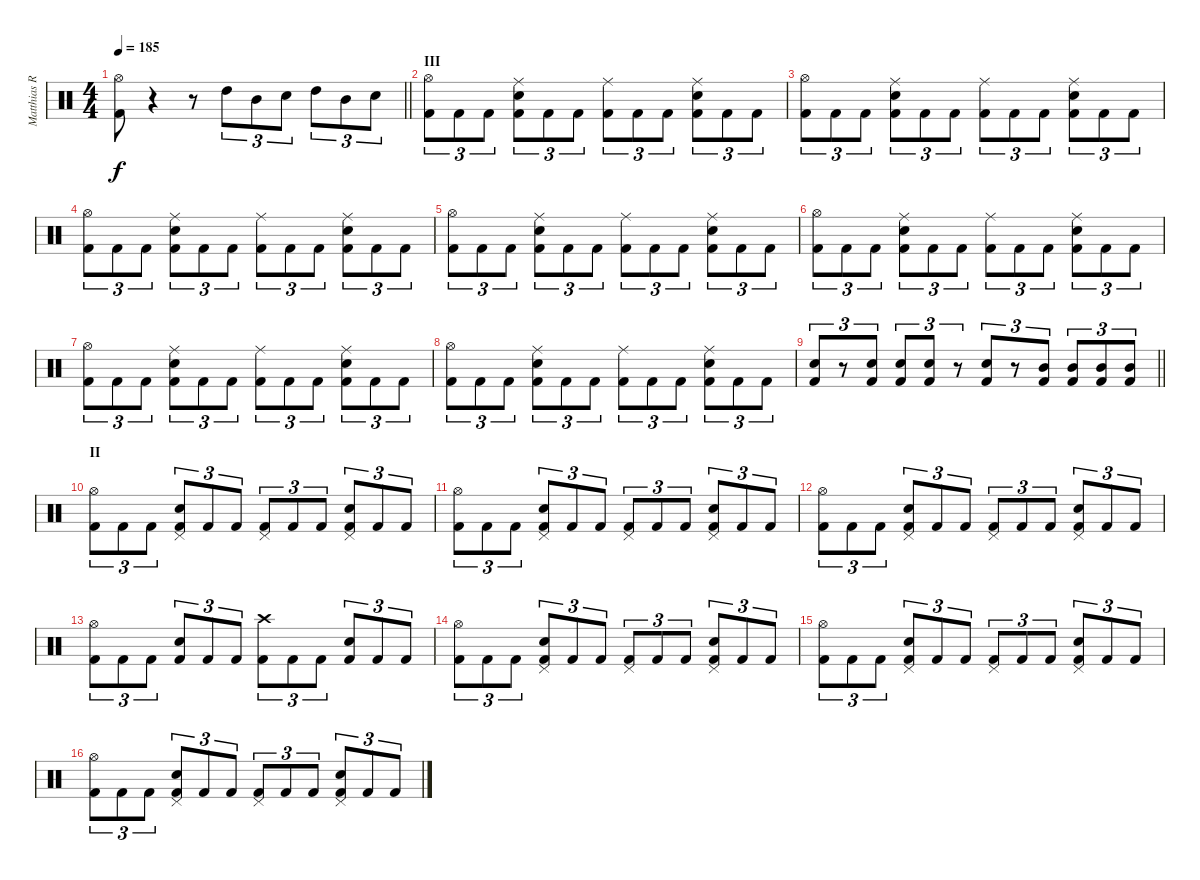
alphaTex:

\track ("Matthias R." "Matthias R") {instrument percussion}
\staff {score}
\articulation defaults
\ts (4 4)
\tempo 185
\clef neutral
\barLineRight lightlight
\ks c
("Kick (hit) 2" "Hi-Hat (open)").8{dy f} r.4 r.8 "High Tom (hit)".8{tu (3 2)} "Mid Tom (hit)".8{tu (3 2)} "Electric Snare (hit)".8{tu (3 2)} "High Tom (hit)".8{tu (3 2)} "Mid Tom (hit)".8{tu (3 2)} "Electric Snare (hit)".8{tu (3 2)} |
\section ("" "III")
("Kick (hit) 2" "Hi-Hat (open)").8{tu (3 2)} "Kick (hit) 2".8{tu (3 2)} "Kick (hit) 2".8{tu (3 2)} ("Kick (hit) 2" "Snare (hit) 2" "Ride (middle)").8{tu (3 2)} "Kick (hit) 2".8{tu (3 2)} "Kick (hit) 2".8{tu (3 2)} ("Kick (hit) 2" "Ride (middle)").8{tu (3 2)} "Kick (hit) 2".8{tu (3 2)} "Kick (hit) 2".8{tu (3 2)} ("Kick (hit) 2" "Snare (hit) 2" "Ride (middle)").8{tu (3 2)} "Kick (hit) 2".8{tu (3 2)} "Kick (hit) 2".8{tu (3 2)} |
("Kick (hit) 2" "Hi-Hat (open)").8{tu (3 2)} "Kick (hit) 2".8{tu (3 2)} "Kick (hit) 2".8{tu (3 2)} ("Kick (hit) 2" "Snare (hit) 2" "Ride (middle)").8{tu (3 2)} "Kick (hit) 2".8{tu (3 2)} "Kick (hit) 2".8{tu (3 2)} ("Kick (hit) 2" "Ride (middle)").8{tu (3 2)} "Kick (hit) 2".8{tu (3 2)} "Kick (hit) 2".8{tu (3 2)} ("Kick (hit) 2" "Snare (hit) 2" "Ride (middle)").8{tu (3 2)} "Kick (hit) 2".8{tu (3 2)} "Kick (hit) 2".8{tu (3 2)} |
("Kick (hit) 2" "Hi-Hat (open)").8{tu (3 2)} "Kick (hit) 2".8{tu (3 2)} "Kick (hit) 2".8{tu (3 2)} ("Kick (hit) 2" "Snare (hit) 2" "Ride (middle)").8{tu (3 2)} "Kick (hit) 2".8{tu (3 2)} "Kick (hit) 2".8{tu (3 2)} ("Kick (hit) 2" "Ride (middle)").8{tu (3 2)} "Kick (hit) 2".8{tu (3 2)} "Kick (hit) 2".8{tu (3 2)} ("Kick (hit) 2" "Snare (hit) 2" "Ride (middle)").8{tu (3 2)} "Kick (hit) 2".8{tu (3 2)} "Kick (hit) 2".8{tu (3 2)} |
("Kick (hit) 2" "Hi-Hat (open)").8{tu (3 2)} "Kick (hit) 2".8{tu (3 2)} "Kick (hit) 2".8{tu (3 2)} ("Kick (hit) 2" "Snare (hit) 2" "Ride (middle)").8{tu (3 2)} "Kick (hit) 2".8{tu (3 2)} "Kick (hit) 2".8{tu (3 2)} ("Kick (hit) 2" "Ride (middle)").8{tu (3 2)} "Kick (hit) 2".8{tu (3 2)} "Kick (hit) 2".8{tu (3 2)} ("Kick (hit) 2" "Snare (hit) 2" "Ride (middle)").8{tu (3 2)} "Kick (hit) 2".8{tu (3 2)} "Kick (hit) 2".8{tu (3 2)} |
("Kick (hit) 2" "Hi-Hat (open)").8{tu (3 2)} "Kick (hit) 2".8{tu (3 2)} "Kick (hit) 2".8{tu (3 2)} ("Kick (hit) 2" "Snare (hit) 2" "Ride (middle)").8{tu (3 2)} "Kick (hit) 2".8{tu (3 2)} "Kick (hit) 2".8{tu (3 2)} ("Kick (hit) 2" "Ride (middle)").8{tu (3 2)} "Kick (hit) 2".8{tu (3 2)} "Kick (hit) 2".8{tu (3 2)} ("Kick (hit) 2" "Snare (hit) 2" "Ride (middle)").8{tu (3 2)} "Kick (hit) 2".8{tu (3 2)} "Kick (hit) 2".8{tu (3 2)} |
("Kick (hit) 2" "Hi-Hat (open)").8{tu (3 2)} "Kick (hit) 2".8{tu (3 2)} "Kick (hit) 2".8{tu (3 2)} ("Kick (hit) 2" "Snare (hit) 2" "Ride (middle)").8{tu (3 2)} "Kick (hit) 2".8{tu (3 2)} "Kick (hit) 2".8{tu (3 2)} ("Kick (hit) 2" "Ride (middle)").8{tu (3 2)} "Kick (hit) 2".8{tu (3 2)} "Kick (hit) 2".8{tu (3 2)} ("Kick (hit) 2" "Snare (hit) 2" "Ride (middle)").8{tu (3 2)} "Kick (hit) 2".8{tu (3 2)} "Kick (hit) 2".8{tu (3 2)} |
("Kick (hit) 2" "Hi-Hat (open)").8{tu (3 2)} "Kick (hit) 2".8{tu (3 2)} "Kick (hit) 2".8{tu (3 2)} ("Kick (hit) 2" "Snare (hit) 2" "Ride (middle)").8{tu (3 2)} "Kick (hit) 2".8{tu (3 2)} "Kick (hit) 2".8{tu (3 2)} ("Kick (hit) 2" "Ride (middle)").8{tu (3 2)} "Kick (hit) 2".8{tu (3 2)} "Kick (hit) 2".8{tu (3 2)} ("Kick (hit) 2" "Snare (hit) 2" "Ride (middle)").8{tu (3 2)} "Kick (hit) 2".8{tu (3 2)} "Kick (hit) 2".8{tu (3 2)} |
\barLineRight lightlight
("Kick (hit) 2" "Snare (hit) 2").8{tu (3 2)} r.8{tu (3 2)} ("Kick (hit) 2" "Snare (hit) 2").8{tu (3 2)} ("Kick (hit) 2" "Snare (hit) 2").8{tu (3 2)} ("Kick (hit) 2" "Snare (hit) 2").8{tu (3 2)} r.8{tu (3 2)} ("Kick (hit) 2" "Snare (hit) 2").8{tu (3 2)} r.8{tu (3 2)} ("Kick (hit) 2" "Mid Tom (hit)").8{tu (3 2)} ("Kick (hit) 2" "Mid Tom (hit)").8{tu (3 2)} ("Kick (hit) 2" "Mid Tom (hit)").8{tu (3 2)} ("Kick (hit) 2" "Mid Tom (hit)").8{tu (3 2)} |
\section ("" "II")
("Kick (hit) 2" "Hi-Hat (open)").8{tu (3 2)} "Kick (hit) 2".8{tu (3 2)} "Kick (hit) 2".8{tu (3 2)} ("Kick (hit) 2" "Snare (hit) 2" "Pedal Hi-Hat (hit)").8{tu (3 2)} "Kick (hit) 2".8{tu (3 2)} "Kick (hit) 2".8{tu (3 2)} ("Kick (hit) 2" "Pedal Hi-Hat (hit)").8{tu (3 2)} "Kick (hit) 2".8{tu (3 2)} "Kick (hit) 2".8{tu (3 2)} ("Kick (hit) 2" "Snare (hit) 2" "Pedal Hi-Hat (hit)").8{tu (3 2)} "Kick (hit) 2".8{tu (3 2)} "Kick (hit) 2".8{tu (3 2)} |
("Kick (hit) 2" "Hi-Hat (open)").8{tu (3 2)} "Kick (hit) 2".8{tu (3 2)} "Kick (hit) 2".8{tu (3 2)} ("Kick (hit) 2" "Snare (hit) 2" "Pedal Hi-Hat (hit)").8{tu (3 2)} "Kick (hit) 2".8{tu (3 2)} "Kick (hit) 2".8{tu (3 2)} ("Kick (hit) 2" "Pedal Hi-Hat (hit)").8{tu (3 2)} "Kick (hit) 2".8{tu (3 2)} "Kick (hit) 2".8{tu (3 2)} ("Kick (hit) 2" "Snare (hit) 2" "Pedal Hi-Hat (hit)").8{tu (3 2)} "Kick (hit) 2".8{tu (3 2)} "Kick (hit) 2".8{tu (3 2)} |
("Kick (hit) 2" "Hi-Hat (open)").8{tu (3 2)} "Kick (hit) 2".8{tu (3 2)} "Kick (hit) 2".8{tu (3 2)} ("Kick (hit) 2" "Snare (hit) 2" "Pedal Hi-Hat (hit)").8{tu (3 2)} "Kick (hit) 2".8{tu (3 2)} "Kick (hit) 2".8{tu (3 2)} ("Kick (hit) 2" "Pedal Hi-Hat (hit)").8{tu (3 2)} "Kick (hit) 2".8{tu (3 2)} "Kick (hit) 2".8{tu (3 2)} ("Kick (hit) 2" "Snare (hit) 2" "Pedal Hi-Hat (hit)").8{tu (3 2)} "Kick (hit) 2".8{tu (3 2)} "Kick (hit) 2".8{tu (3 2)} |
("Kick (hit) 2" "Hi-Hat (open)").8{tu (3 2)} "Kick (hit) 2".8{tu (3 2)} "Kick (hit) 2".8{tu (3 2)} ("Kick (hit) 2" "Snare (hit) 2").8{tu (3 2)} "Kick (hit) 2".8{tu (3 2)} "Kick (hit) 2".8{tu (3 2)} ("Kick (hit) 2" "Crash high (hit)").8{tu (3 2)} "Kick (hit) 2".8{tu (3 2)} "Kick (hit) 2".8{tu (3 2)} ("Kick (hit) 2" "Snare (hit) 2").8{tu (3 2)} "Kick (hit) 2".8{tu (3 2)} "Kick (hit) 2".8{tu (3 2)} |
("Kick (hit) 2" "Hi-Hat (open)").8{tu (3 2)} "Kick (hit) 2".8{tu (3 2)} "Kick (hit) 2".8{tu (3 2)} ("Kick (hit) 2" "Snare (hit) 2" "Pedal Hi-Hat (hit)").8{tu (3 2)} "Kick (hit) 2".8{tu (3 2)} "Kick (hit) 2".8{tu (3 2)} ("Kick (hit) 2" "Pedal Hi-Hat (hit)").8{tu (3 2)} "Kick (hit) 2".8{tu (3 2)} "Kick (hit) 2".8{tu (3 2)} ("Kick (hit) 2" "Snare (hit) 2" "Pedal Hi-Hat (hit)").8{tu (3 2)} "Kick (hit) 2".8{tu (3 2)} "Kick (hit) 2".8{tu (3 2)} |
("Kick (hit) 2" "Hi-Hat (open)").8{tu (3 2)} "Kick (hit) 2".8{tu (3 2)} "Kick (hit) 2".8{tu (3 2)} ("Kick (hit) 2" "Snare (hit) 2" "Pedal Hi-Hat (hit)").8{tu (3 2)} "Kick (hit) 2".8{tu (3 2)} "Kick (hit) 2".8{tu (3 2)} ("Kick (hit) 2" "Pedal Hi-Hat (hit)").8{tu (3 2)} "Kick (hit) 2".8{tu (3 2)} "Kick (hit) 2".8{tu (3 2)} ("Kick (hit) 2" "Snare (hit) 2" "Pedal Hi-Hat (hit)").8{tu (3 2)} "Kick (hit) 2".8{tu (3 2)} "Kick (hit) 2".8{tu (3 2)} |
("Kick (hit) 2" "Hi-Hat (open)").8{tu (3 2)} "Kick (hit) 2".8{tu (3 2)} "Kick (hit) 2".8{tu (3 2)} ("Kick (hit) 2" "Snare (hit) 2" "Pedal Hi-Hat (hit)").8{tu (3 2)} "Kick (hit) 2".8{tu (3 2)} "Kick (hit) 2".8{tu (3 2)} ("Kick (hit) 2" "Pedal Hi-Hat (hit)").8{tu (3 2)} "Kick (hit) 2".8{tu (3 2)} "Kick (hit) 2".8{tu (3 2)} ("Kick (hit) 2" "Snare (hit) 2" "Pedal Hi-Hat (hit)").8{tu (3 2)} "Kick (hit) 2".8{tu (3 2)} "Kick (hit) 2".8{tu (3 2)}
